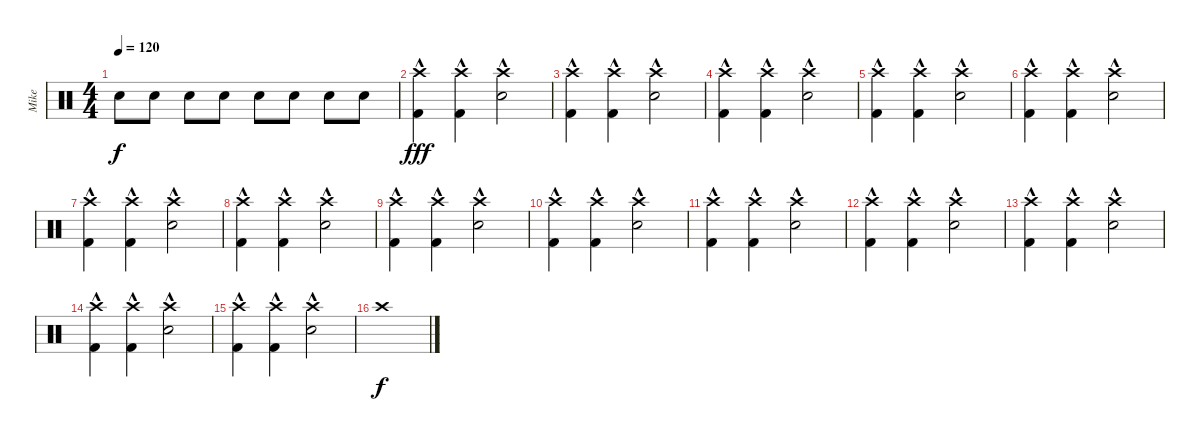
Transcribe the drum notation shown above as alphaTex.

\track ("Mike" "Mike") {instrument percussion}
\staff {score}
\articulation defaults
\ts (4 4)
\tempo 120
\clef neutral
\ks c "Electric Snare (hit)".8{dy f} "Electric Snare (hit)".8 "Electric Snare (hit)".8 "Electric Snare (hit)".8 "Electric Snare (hit)".8 "Electric Snare (hit)".8 "Electric Snare (hit)".8 "Electric Snare (hit)".8
|
("Crash high (hit)"{hac} "Kick (hit) 2"{hac}).4{dy fff} ("Crash high (hit)"{hac} "Kick (hit) 2"{hac}).4 ("Crash high (hit)"{hac} "Electric Snare (hit)"{hac}).2 |
("Crash high (hit)"{hac} "Kick (hit) 2"{hac}).4 ("Crash high (hit)"{hac} "Kick (hit) 2"{hac}).4 ("Crash high (hit)"{hac} "Electric Snare (hit)"{hac}).2 |
("Crash high (hit)"{hac} "Kick (hit) 2"{hac}).4 ("Crash high (hit)"{hac} "Kick (hit) 2"{hac}).4 ("Crash high (hit)"{hac} "Electric Snare (hit)"{hac}).2 |
("Crash high (hit)"{hac} "Kick (hit) 2"{hac}).4 ("Crash high (hit)"{hac} "Kick (hit) 2"{hac}).4 ("Crash high (hit)"{hac} "Electric Snare (hit)"{hac}).2 |
("Crash high (hit)"{hac} "Kick (hit) 2"{hac}).4 ("Crash high (hit)"{hac} "Kick (hit) 2"{hac}).4 ("Crash high (hit)"{hac} "Electric Snare (hit)"{hac}).2 |
("Crash high (hit)"{hac} "Kick (hit) 2"{hac}).4 ("Crash high (hit)"{hac} "Kick (hit) 2"{hac}).4 ("Crash high (hit)"{hac} "Electric Snare (hit)"{hac}).2 |
("Crash high (hit)"{hac} "Kick (hit) 2"{hac}).4 ("Crash high (hit)"{hac} "Kick (hit) 2"{hac}).4 ("Crash high (hit)"{hac} "Electric Snare (hit)"{hac}).2 |
("Crash high (hit)"{hac} "Kick (hit) 2"{hac}).4 ("Crash high (hit)"{hac} "Kick (hit) 2"{hac}).4 ("Crash high (hit)"{hac} "Electric Snare (hit)"{hac}).2 |
("Crash high (hit)"{hac} "Kick (hit) 2"{hac}).4 ("Crash high (hit)"{hac} "Kick (hit) 2"{hac}).4 ("Crash high (hit)"{hac} "Electric Snare (hit)"{hac}).2 |
("Crash high (hit)"{hac} "Kick (hit) 2"{hac}).4 ("Crash high (hit)"{hac} "Kick (hit) 2"{hac}).4 ("Crash high (hit)"{hac} "Electric Snare (hit)"{hac}).2 |
("Crash high (hit)"{hac} "Kick (hit) 2"{hac}).4 ("Crash high (hit)"{hac} "Kick (hit) 2"{hac}).4 ("Crash high (hit)"{hac} "Electric Snare (hit)"{hac}).2 |
("Crash high (hit)"{hac} "Kick (hit) 2"{hac}).4 ("Crash high (hit)"{hac} "Kick (hit) 2"{hac}).4 ("Crash high (hit)"{hac} "Electric Snare (hit)"{hac}).2 |
("Crash high (hit)"{hac} "Kick (hit) 2"{hac}).4 ("Crash high (hit)"{hac} "Kick (hit) 2"{hac}).4 ("Crash high (hit)"{hac} "Electric Snare (hit)"{hac}).2 |
("Crash high (hit)"{hac} "Kick (hit) 2"{hac}).4 ("Crash high (hit)"{hac} "Kick (hit) 2"{hac}).4 ("Crash high (hit)"{hac} "Electric Snare (hit)"{hac}).2 |
"Crash high (hit)".1{dy f}
